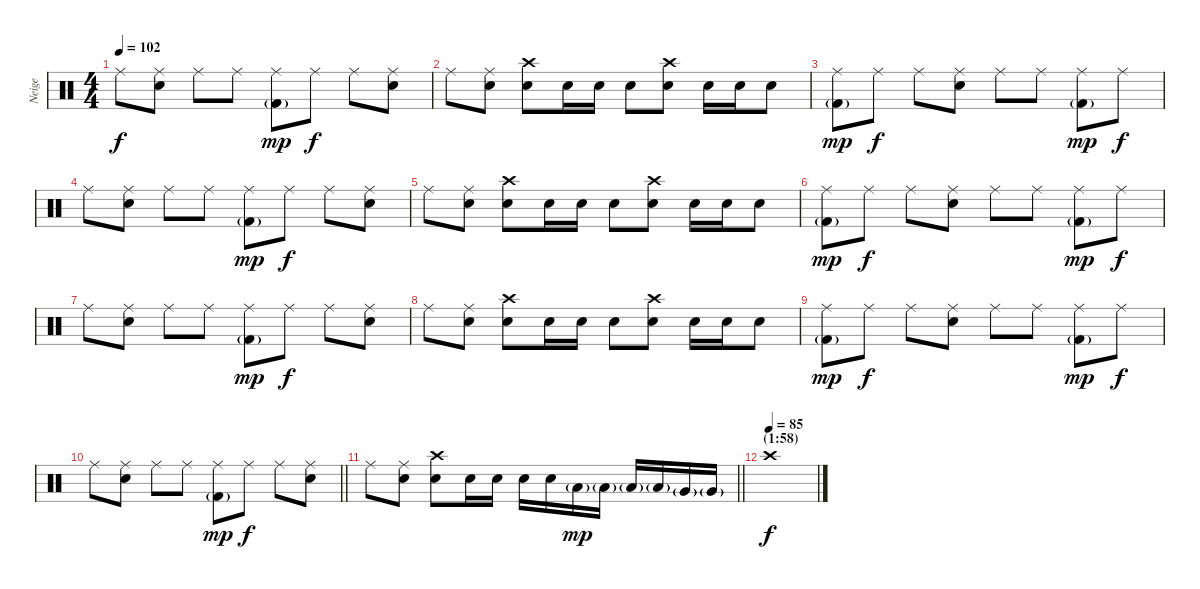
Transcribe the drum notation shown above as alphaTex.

\track ("Neige" "Neige") {instrument percussion}
\staff {score}
\articulation defaults
\ts (4 4)
\tempo 102
\clef neutral
\ks c "Ride (middle)".8{dy f}
("Snare (hit) 2" "Ride (middle)").8 "Ride (middle)".8 "Ride (middle)".8 ("Kick (hit) 2"{g} "Ride (middle)").8{dy mp} "Ride (middle)".8{dy f} "Ride (middle)".8 ("Snare (hit) 2" "Ride (middle)").8 |
"Ride (middle)".8 ("Snare (hit) 2" "Ride (middle)").8 ("Snare (hit) 2" "Crash high (hit)").8 "Snare (hit) 2".16 "Snare (hit) 2".16 "Snare (hit) 2".8 ("Snare (hit) 2" "Crash high (hit)").8 "Snare (hit) 2".16 "Snare (hit) 2".16 "Snare (hit) 2".8 |
("Kick (hit) 2"{g} "Ride (middle)").8{dy mp} "Ride (middle)".8{dy f} "Ride (middle)".8 ("Snare (hit) 2" "Ride (middle)").8 "Ride (middle)".8 "Ride (middle)".8 ("Kick (hit) 2"{g} "Ride (middle)").8{dy mp} "Ride (middle)".8{dy f} |
"Ride (middle)".8 ("Snare (hit) 2" "Ride (middle)").8 "Ride (middle)".8 "Ride (middle)".8 ("Kick (hit) 2"{g} "Ride (middle)").8{dy mp} "Ride (middle)".8{dy f} "Ride (middle)".8 ("Snare (hit) 2" "Ride (middle)").8 |
"Ride (middle)".8 ("Snare (hit) 2" "Ride (middle)").8 ("Snare (hit) 2" "Crash high (hit)").8 "Snare (hit) 2".16 "Snare (hit) 2".16 "Snare (hit) 2".8 ("Snare (hit) 2" "Crash high (hit)").8 "Snare (hit) 2".16 "Snare (hit) 2".16 "Snare (hit) 2".8 |
("Kick (hit) 2"{g} "Ride (middle)").8{dy mp} "Ride (middle)".8{dy f} "Ride (middle)".8 ("Snare (hit) 2" "Ride (middle)").8 "Ride (middle)".8 "Ride (middle)".8 ("Kick (hit) 2"{g} "Ride (middle)").8{dy mp} "Ride (middle)".8{dy f} |
"Ride (middle)".8 ("Snare (hit) 2" "Ride (middle)").8 "Ride (middle)".8 "Ride (middle)".8 ("Kick (hit) 2"{g} "Ride (middle)").8{dy mp} "Ride (middle)".8{dy f} "Ride (middle)".8 ("Snare (hit) 2" "Ride (middle)").8 |
"Ride (middle)".8 ("Snare (hit) 2" "Ride (middle)").8 ("Snare (hit) 2" "Crash high (hit)").8 "Snare (hit) 2".16 "Snare (hit) 2".16 "Snare (hit) 2".8 ("Snare (hit) 2" "Crash high (hit)").8 "Snare (hit) 2".16 "Snare (hit) 2".16 "Snare (hit) 2".8 |
("Kick (hit) 2"{g} "Ride (middle)").8{dy mp} "Ride (middle)".8{dy f} "Ride (middle)".8 ("Snare (hit) 2" "Ride (middle)").8 "Ride (middle)".8 "Ride (middle)".8 ("Kick (hit) 2"{g} "Ride (middle)").8{dy mp} "Ride (middle)".8{dy f} |
\barLineRight lightlight "Ride (middle)".8
("Snare (hit) 2" "Ride (middle)").8 "Ride (middle)".8 "Ride (middle)".8 ("Kick (hit) 2"{g} "Ride (middle)").8{dy mp} "Ride (middle)".8{dy f} "Ride (middle)".8 ("Snare (hit) 2" "Ride (middle)").8 |
\barLineRight lightlight "Ride (middle)".8
("Snare (hit) 2" "Ride (middle)").8 ("Snare (hit) 2" "Crash high (hit)").8 "Snare (hit) 2".16 "Snare (hit) 2".16 "Snare (hit) 2".16 "Snare (hit) 2".16 "Low Tom (hit)"{g}.16{dy mp} "Low Tom (hit)"{g}.16 "Low Tom (hit)"{g}.16 "Low Tom (hit)"{g}.16 "Very Low Tom (hit)"{g}.16 "Very Low Tom (hit)"{g}.16 |
\section ("" "(1:58)")
\tempo (85)
"Crash high (hit)".1{dy f}
